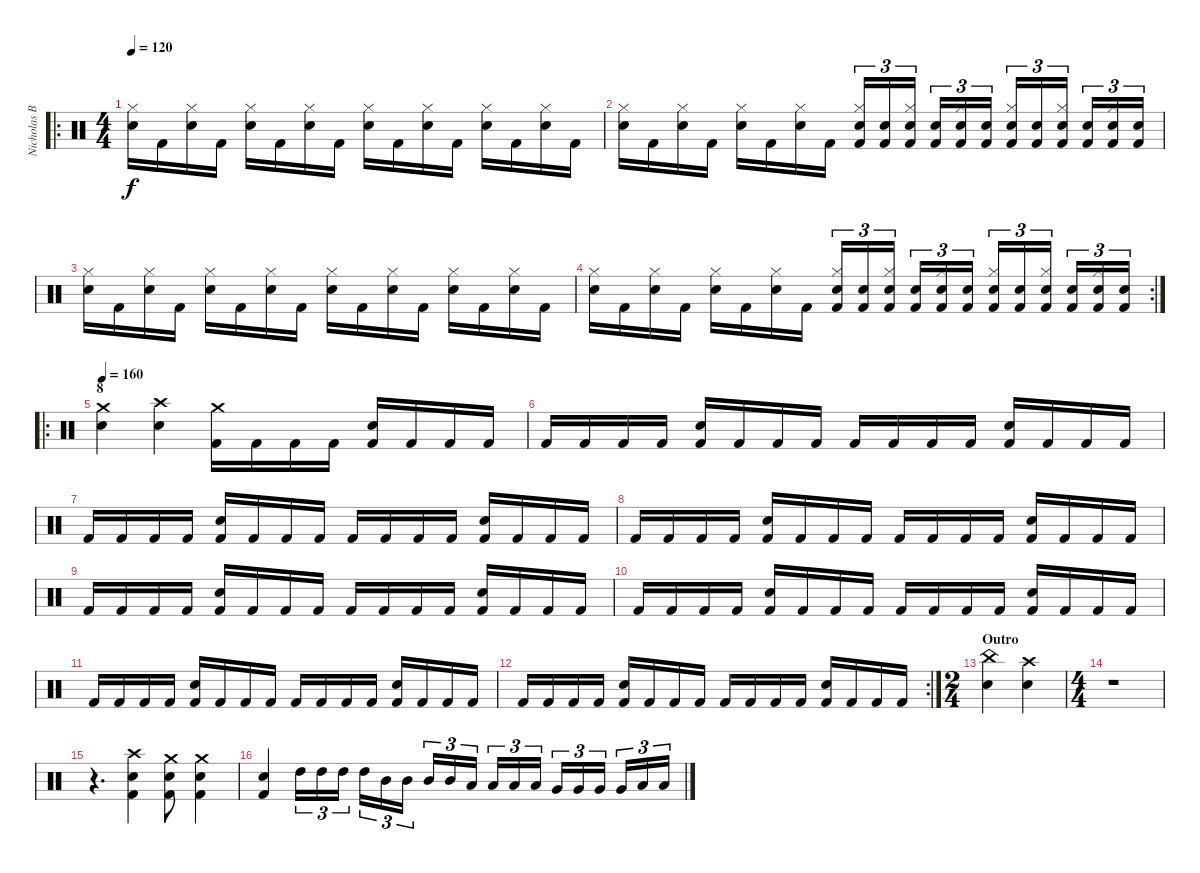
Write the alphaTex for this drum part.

\track ("Nicholas Barker" "Nicholas B") {instrument percussion}
\staff {score}
\articulation defaults
\ro
\ts (4 4)
\tempo 120
\clef neutral
\ks c
("Snare (hit) 2" "Hi-Hat (closed)").16{dy f} "Kick (hit) 2".16 ("Snare (hit) 2" "Hi-Hat (closed)").16 "Kick (hit) 2".16 ("Snare (hit) 2" "Hi-Hat (closed)").16 "Kick (hit) 2".16 ("Snare (hit) 2" "Hi-Hat (closed)").16 "Kick (hit) 2".16 ("Snare (hit) 2" "Hi-Hat (closed)").16 "Kick (hit) 2".16 ("Snare (hit) 2" "Hi-Hat (closed)").16 "Kick (hit) 2".16 ("Snare (hit) 2" "Hi-Hat (closed)").16 "Kick (hit) 2".16 ("Snare (hit) 2" "Hi-Hat (closed)").16 "Kick (hit) 2".16 |
("Snare (hit) 2" "Hi-Hat (closed)").16 "Kick (hit) 2".16 ("Snare (hit) 2" "Hi-Hat (closed)").16 "Kick (hit) 2".16 ("Snare (hit) 2" "Hi-Hat (closed)").16 "Kick (hit) 2".16 ("Snare (hit) 2" "Hi-Hat (closed)").16 "Kick (hit) 2".16 ("Kick (hit) 2" "Snare (hit) 2" "Hi-Hat (closed)").16{tu (3 2)} ("Kick (hit) 2" "Snare (hit) 2").16{tu (3 2)} ("Kick (hit) 2" "Snare (hit) 2" "Hi-Hat (closed)").16{tu (3 2)} ("Kick (hit) 2" "Snare (hit) 2").16{tu (3 2)} ("Kick (hit) 2" "Snare (hit) 2" "Hi-Hat (closed)").16{tu (3 2)} ("Kick (hit) 2" "Snare (hit) 2").16{tu (3 2)} ("Kick (hit) 2" "Snare (hit) 2" "Hi-Hat (closed)").16{tu (3 2)} ("Kick (hit) 2" "Snare (hit) 2").16{tu (3 2)} ("Kick (hit) 2" "Snare (hit) 2" "Hi-Hat (closed)").16{tu (3 2)} ("Kick (hit) 2" "Snare (hit) 2").16{tu (3 2)} ("Kick (hit) 2" "Snare (hit) 2" "Hi-Hat (closed)").16{tu (3 2)} ("Kick (hit) 2" "Snare (hit) 2").16{tu (3 2)} |
("Snare (hit) 2" "Hi-Hat (closed)").16 "Kick (hit) 2".16 ("Snare (hit) 2" "Hi-Hat (closed)").16 "Kick (hit) 2".16 ("Snare (hit) 2" "Hi-Hat (closed)").16 "Kick (hit) 2".16 ("Snare (hit) 2" "Hi-Hat (closed)").16 "Kick (hit) 2".16 ("Snare (hit) 2" "Hi-Hat (closed)").16 "Kick (hit) 2".16 ("Snare (hit) 2" "Hi-Hat (closed)").16 "Kick (hit) 2".16 ("Snare (hit) 2" "Hi-Hat (closed)").16 "Kick (hit) 2".16 ("Snare (hit) 2" "Hi-Hat (closed)").16 "Kick (hit) 2".16 |
\rc 2
("Snare (hit) 2" "Hi-Hat (closed)").16 "Kick (hit) 2".16 ("Snare (hit) 2" "Hi-Hat (closed)").16 "Kick (hit) 2".16 ("Snare (hit) 2" "Hi-Hat (closed)").16 "Kick (hit) 2".16 ("Snare (hit) 2" "Hi-Hat (closed)").16 "Kick (hit) 2".16 ("Kick (hit) 2" "Snare (hit) 2" "Hi-Hat (closed)").16{tu (3 2)} ("Kick (hit) 2" "Snare (hit) 2").16{tu (3 2)} ("Kick (hit) 2" "Snare (hit) 2" "Hi-Hat (closed)").16{tu (3 2)} ("Kick (hit) 2" "Snare (hit) 2").16{tu (3 2)} ("Kick (hit) 2" "Snare (hit) 2" "Hi-Hat (closed)").16{tu (3 2)} ("Kick (hit) 2" "Snare (hit) 2").16{tu (3 2)} ("Kick (hit) 2" "Snare (hit) 2" "Hi-Hat (closed)").16{tu (3 2)} ("Kick (hit) 2" "Snare (hit) 2").16{tu (3 2)} ("Kick (hit) 2" "Snare (hit) 2" "Hi-Hat (closed)").16{tu (3 2)} ("Kick (hit) 2" "Snare (hit) 2").16{tu (3 2)} ("Kick (hit) 2" "Snare (hit) 2" "Hi-Hat (closed)").16{tu (3 2)} ("Kick (hit) 2" "Snare (hit) 2").16{tu (3 2)} |
\ro
\section ("" "8")
\tempo 160
("Crash medium (hit)" "Snare (hit) 2").4 ("Crash high (hit)" "Snare (hit) 2").4 ("Kick (hit) 2" "Crash medium (hit)").16 "Kick (hit) 2".16 "Kick (hit) 2".16 "Kick (hit) 2".16 ("Kick (hit) 2" "Snare (hit) 2").16 "Kick (hit) 2".16 "Kick (hit) 2".16 "Kick (hit) 2".16 |
"Kick (hit) 2".16 "Kick (hit) 2".16 "Kick (hit) 2".16 "Kick (hit) 2".16 ("Kick (hit) 2" "Snare (hit) 2").16 "Kick (hit) 2".16 "Kick (hit) 2".16 "Kick (hit) 2".16 "Kick (hit) 2".16 "Kick (hit) 2".16 "Kick (hit) 2".16 "Kick (hit) 2".16 ("Kick (hit) 2" "Snare (hit) 2").16 "Kick (hit) 2".16 "Kick (hit) 2".16 "Kick (hit) 2".16 |
"Kick (hit) 2".16 "Kick (hit) 2".16 "Kick (hit) 2".16 "Kick (hit) 2".16 ("Kick (hit) 2" "Snare (hit) 2").16 "Kick (hit) 2".16 "Kick (hit) 2".16 "Kick (hit) 2".16 "Kick (hit) 2".16 "Kick (hit) 2".16 "Kick (hit) 2".16 "Kick (hit) 2".16 ("Kick (hit) 2" "Snare (hit) 2").16 "Kick (hit) 2".16 "Kick (hit) 2".16 "Kick (hit) 2".16 |
"Kick (hit) 2".16 "Kick (hit) 2".16 "Kick (hit) 2".16 "Kick (hit) 2".16 ("Kick (hit) 2" "Snare (hit) 2").16 "Kick (hit) 2".16 "Kick (hit) 2".16 "Kick (hit) 2".16 "Kick (hit) 2".16 "Kick (hit) 2".16 "Kick (hit) 2".16 "Kick (hit) 2".16 ("Kick (hit) 2" "Snare (hit) 2").16 "Kick (hit) 2".16 "Kick (hit) 2".16 "Kick (hit) 2".16 |
"Kick (hit) 2".16 "Kick (hit) 2".16 "Kick (hit) 2".16 "Kick (hit) 2".16 ("Kick (hit) 2" "Snare (hit) 2").16 "Kick (hit) 2".16 "Kick (hit) 2".16 "Kick (hit) 2".16 "Kick (hit) 2".16 "Kick (hit) 2".16 "Kick (hit) 2".16 "Kick (hit) 2".16 ("Kick (hit) 2" "Snare (hit) 2").16 "Kick (hit) 2".16 "Kick (hit) 2".16 "Kick (hit) 2".16 |
"Kick (hit) 2".16 "Kick (hit) 2".16 "Kick (hit) 2".16 "Kick (hit) 2".16 ("Kick (hit) 2" "Snare (hit) 2").16 "Kick (hit) 2".16 "Kick (hit) 2".16 "Kick (hit) 2".16 "Kick (hit) 2".16 "Kick (hit) 2".16 "Kick (hit) 2".16 "Kick (hit) 2".16 ("Kick (hit) 2" "Snare (hit) 2").16 "Kick (hit) 2".16 "Kick (hit) 2".16 "Kick (hit) 2".16 |
"Kick (hit) 2".16 "Kick (hit) 2".16 "Kick (hit) 2".16 "Kick (hit) 2".16 ("Kick (hit) 2" "Snare (hit) 2").16 "Kick (hit) 2".16 "Kick (hit) 2".16 "Kick (hit) 2".16 "Kick (hit) 2".16 "Kick (hit) 2".16 "Kick (hit) 2".16 "Kick (hit) 2".16 ("Kick (hit) 2" "Snare (hit) 2").16 "Kick (hit) 2".16 "Kick (hit) 2".16 "Kick (hit) 2".16 |
\rc 2 "Kick (hit) 2".16 "Kick (hit) 2".16 "Kick (hit) 2".16 "Kick (hit) 2".16
("Kick (hit) 2" "Snare (hit) 2").16 "Kick (hit) 2".16 "Kick (hit) 2".16 "Kick (hit) 2".16 "Kick (hit) 2".16 "Kick (hit) 2".16 "Kick (hit) 2".16 "Kick (hit) 2".16 ("Kick (hit) 2" "Snare (hit) 2").16 "Kick (hit) 2".16 "Kick (hit) 2".16 "Kick (hit) 2".16 |
\ts (2 4)
\section ("" "Outro")
("Snare (hit) 2" "China (hit)").4 ("Snare (hit) 2" "Crash high (hit)").4 |
\ts (4 4)
r.1 |
r.4{d} ("Crash high (hit)" "Snare (hit) 2" "Kick (hit) 2").4 ("Crash medium (hit)" "Snare (hit) 2" "Kick (hit) 2").8 ("Crash medium (hit)" "Snare (hit) 2" "Kick (hit) 2").4 |
("Snare (hit) 2" "Kick (hit) 2").4 "High Tom (hit)".16{tu (3 2)} "High Tom (hit)".16{tu (3 2)} "High Tom (hit)".16{tu (3 2)} "High Tom (hit)".16{tu (3 2)} "Mid Tom (hit)".16{tu (3 2)} "Mid Tom (hit)".16{tu (3 2)} "Mid Tom (hit)".16{tu (3 2)} "Mid Tom (hit)".16{tu (3 2)} "Low Tom (hit)".16{tu (3 2)} "Low Tom (hit)".16{tu (3 2)} "Low Tom (hit)".16{tu (3 2)} "Low Tom (hit)".16{tu (3 2)} "Very Low Tom (hit)".16{tu (3 2)} "Very Low Tom (hit)".16{tu (3 2)} "Very Low Tom (hit)".16{tu (3 2)} "Very Low Tom (hit)".16{tu (3 2)} "Low Floor Tom (hit)".16{tu (3 2)} "Low Floor Tom (hit)".16{tu (3 2)}
